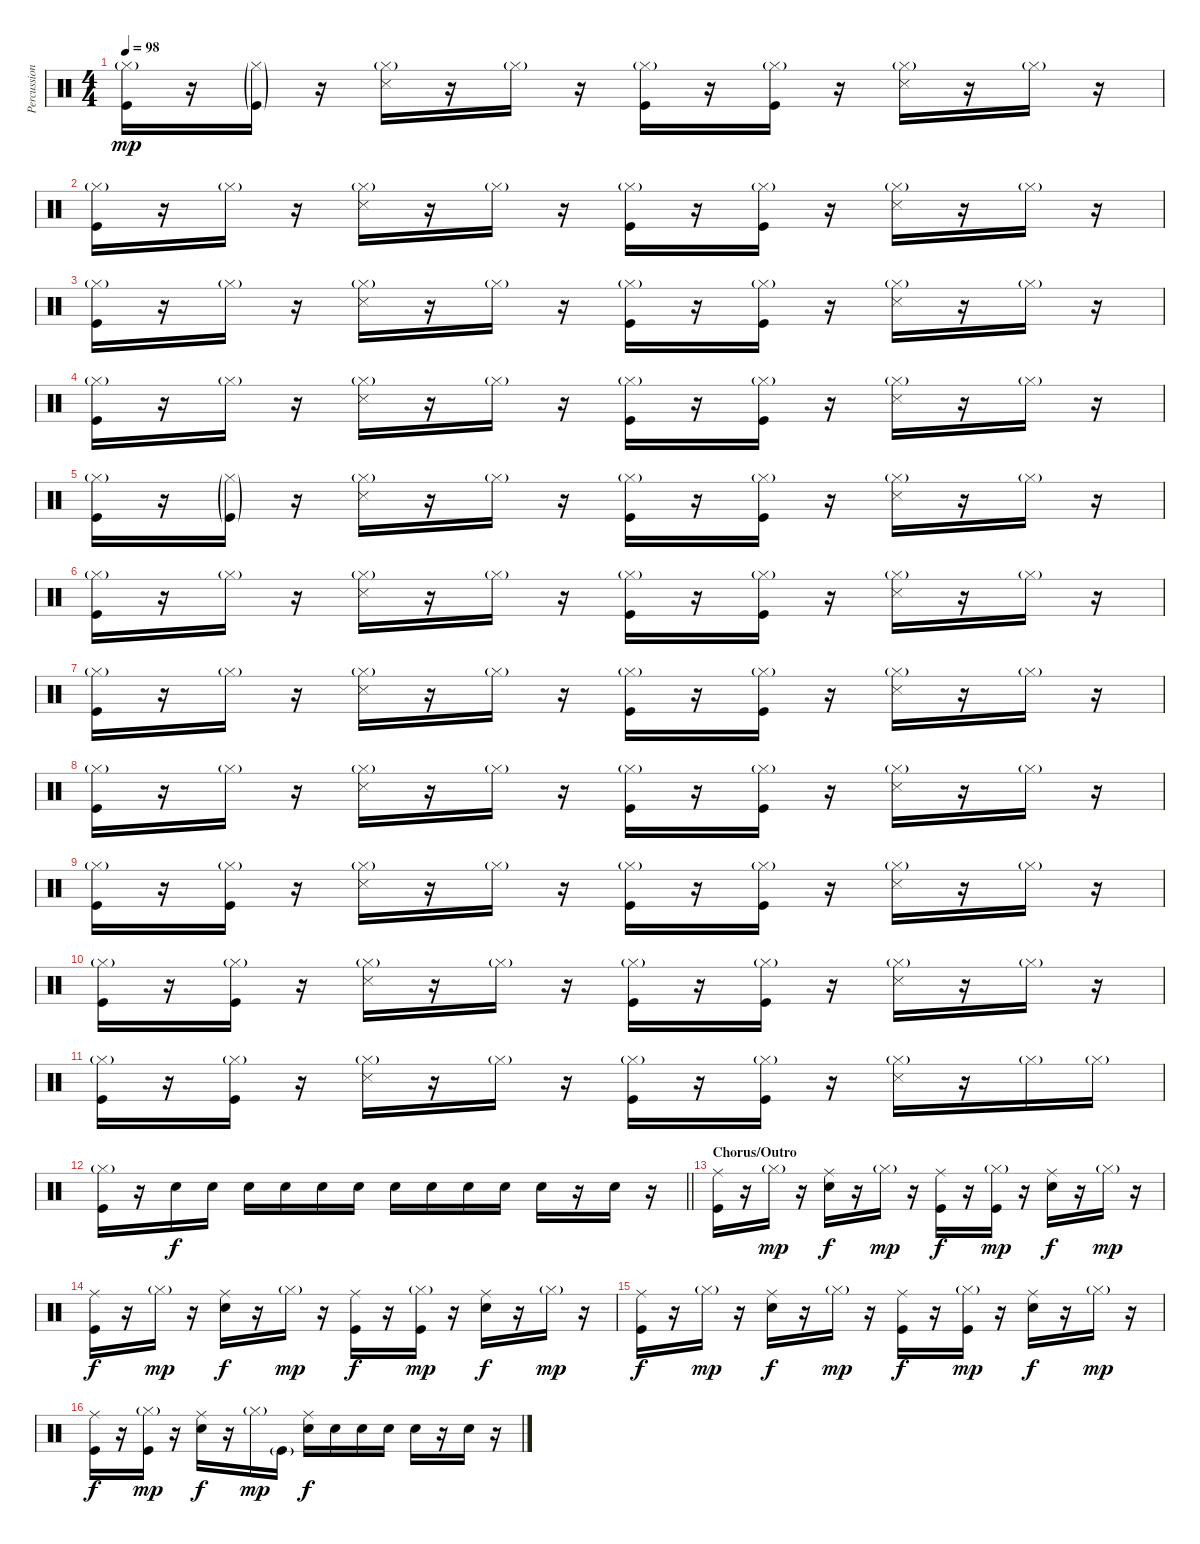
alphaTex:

\track ("Percussion" "Percussion") {instrument percussion}
\staff {score}
\articulation defaults
\ts (4 4)
\tempo 98
\clef neutral
\ks c
("Hi-Hat (closed)"{g} "Kick (hit)").16{dy mp} r.16 ("Hi-Hat (closed)"{g} "Kick (hit)"{g}).16 r.16 ("Hi-Hat (closed)"{g} "Snare (side stick) 3").16 r.16 "Hi-Hat (closed)"{g}.16 r.16 ("Hi-Hat (closed)"{g} "Kick (hit)").16 r.16 ("Hi-Hat (closed)"{g} "Kick (hit)").16 r.16 ("Hi-Hat (closed)"{g} "Snare (side stick) 3").16 r.16 "Hi-Hat (closed)"{g}.16 r.16 |
("Hi-Hat (closed)"{g} "Kick (hit)").16 r.16 "Hi-Hat (closed)"{g}.16 r.16 ("Hi-Hat (closed)"{g} "Snare (side stick) 3").16 r.16 "Hi-Hat (closed)"{g}.16 r.16 ("Hi-Hat (closed)"{g} "Kick (hit)").16 r.16 ("Hi-Hat (closed)"{g} "Kick (hit)").16 r.16 ("Hi-Hat (closed)"{g} "Snare (side stick) 3").16 r.16 "Hi-Hat (closed)"{g}.16 r.16 |
("Hi-Hat (closed)"{g} "Kick (hit)").16 r.16 "Hi-Hat (closed)"{g}.16 r.16 ("Hi-Hat (closed)"{g} "Snare (side stick) 3").16 r.16 "Hi-Hat (closed)"{g}.16 r.16 ("Hi-Hat (closed)"{g} "Kick (hit)").16 r.16 ("Hi-Hat (closed)"{g} "Kick (hit)").16 r.16 ("Hi-Hat (closed)"{g} "Snare (side stick) 3").16 r.16 "Hi-Hat (closed)"{g}.16 r.16 |
("Hi-Hat (closed)"{g} "Kick (hit)").16 r.16 "Hi-Hat (closed)"{g}.16 r.16 ("Hi-Hat (closed)"{g} "Snare (side stick) 3").16 r.16 "Hi-Hat (closed)"{g}.16 r.16 ("Hi-Hat (closed)"{g} "Kick (hit)").16 r.16 ("Hi-Hat (closed)"{g} "Kick (hit)").16 r.16 ("Hi-Hat (closed)"{g} "Snare (side stick) 3").16 r.16 "Hi-Hat (closed)"{g}.16 r.16 |
("Hi-Hat (closed)"{g} "Kick (hit)").16 r.16 ("Hi-Hat (closed)"{g} "Kick (hit)"{g}).16 r.16 ("Hi-Hat (closed)"{g} "Snare (side stick) 3").16 r.16 "Hi-Hat (closed)"{g}.16 r.16 ("Hi-Hat (closed)"{g} "Kick (hit)").16 r.16 ("Hi-Hat (closed)"{g} "Kick (hit)").16 r.16 ("Hi-Hat (closed)"{g} "Snare (side stick) 3").16 r.16 "Hi-Hat (closed)"{g}.16 r.16 |
("Hi-Hat (closed)"{g} "Kick (hit)").16 r.16 "Hi-Hat (closed)"{g}.16 r.16 ("Hi-Hat (closed)"{g} "Snare (side stick) 3").16 r.16 "Hi-Hat (closed)"{g}.16 r.16 ("Hi-Hat (closed)"{g} "Kick (hit)").16 r.16 ("Hi-Hat (closed)"{g} "Kick (hit)").16 r.16 ("Hi-Hat (closed)"{g} "Snare (side stick) 3").16 r.16 "Hi-Hat (closed)"{g}.16 r.16 |
("Hi-Hat (closed)"{g} "Kick (hit)").16 r.16 "Hi-Hat (closed)"{g}.16 r.16 ("Hi-Hat (closed)"{g} "Snare (side stick) 3").16 r.16 "Hi-Hat (closed)"{g}.16 r.16 ("Hi-Hat (closed)"{g} "Kick (hit)").16 r.16 ("Hi-Hat (closed)"{g} "Kick (hit)").16 r.16 ("Hi-Hat (closed)"{g} "Snare (side stick) 3").16 r.16 "Hi-Hat (closed)"{g}.16 r.16 |
("Hi-Hat (closed)"{g} "Kick (hit)").16 r.16 "Hi-Hat (closed)"{g}.16 r.16 ("Hi-Hat (closed)"{g} "Snare (side stick) 3").16 r.16 "Hi-Hat (closed)"{g}.16 r.16 ("Hi-Hat (closed)"{g} "Kick (hit)").16 r.16 ("Hi-Hat (closed)"{g} "Kick (hit)").16 r.16 ("Hi-Hat (closed)"{g} "Snare (side stick) 3").16 r.16 "Hi-Hat (closed)"{g}.16 r.16 |
("Hi-Hat (closed)"{g} "Kick (hit)").16 r.16 ("Hi-Hat (closed)"{g} "Kick (hit)").16 r.16 ("Hi-Hat (closed)"{g} "Snare (side stick) 3").16 r.16 "Hi-Hat (closed)"{g}.16 r.16 ("Hi-Hat (closed)"{g} "Kick (hit)").16 r.16 ("Hi-Hat (closed)"{g} "Kick (hit)").16 r.16 ("Hi-Hat (closed)"{g} "Snare (side stick) 3").16 r.16 "Hi-Hat (closed)"{g}.16 r.16 |
("Hi-Hat (closed)"{g} "Kick (hit)").16 r.16 ("Hi-Hat (closed)"{g} "Kick (hit)").16 r.16 ("Hi-Hat (closed)"{g} "Snare (side stick) 3").16 r.16 "Hi-Hat (closed)"{g}.16 r.16 ("Hi-Hat (closed)"{g} "Kick (hit)").16 r.16 ("Hi-Hat (closed)"{g} "Kick (hit)").16 r.16 ("Hi-Hat (closed)"{g} "Snare (side stick) 3").16 r.16 "Hi-Hat (closed)"{g}.16 r.16 |
("Hi-Hat (closed)"{g} "Kick (hit)").16 r.16 ("Hi-Hat (closed)"{g} "Kick (hit)").16 r.16 ("Hi-Hat (closed)"{g} "Snare (side stick) 3").16 r.16 "Hi-Hat (closed)"{g}.16 r.16 ("Hi-Hat (closed)"{g} "Kick (hit)").16 r.16 ("Hi-Hat (closed)"{g} "Kick (hit)").16 r.16 ("Hi-Hat (closed)"{g} "Snare (side stick) 3").16 r.16 "Hi-Hat (closed)"{g}.16 "Hi-Hat (closed)"{g}.16 |
\barLineRight lightlight
("Hi-Hat (closed)"{g} "Kick (hit)").16 r.16 "Snare (hit) 2".16{dy f} "Snare (hit) 2".16 "Snare (hit) 2".16 "Snare (hit) 2".16 "Snare (hit) 2".16 "Snare (hit) 2".16 "Snare (hit) 2".16 "Snare (hit) 2".16 "Snare (hit) 2".16 "Snare (hit) 2".16 "Snare (hit) 2".16 r.16 "Snare (hit) 2".16 r.16 |
\section ("" "Chorus/Outro")
("Ride (middle)" "Kick (hit)").16 r.16 "Hi-Hat (closed)"{g}.16{dy mp} r.16 ("Ride (middle)" "Snare (hit) 2").16{dy f} r.16 "Hi-Hat (closed)"{g}.16{dy mp} r.16 ("Ride (middle)" "Kick (hit)").16{dy f} r.16 ("Hi-Hat (closed)"{g} "Kick (hit)").16{dy mp} r.16 ("Ride (middle)" "Snare (hit) 2").16{dy f} r.16 "Hi-Hat (closed)"{g}.16{dy mp} r.16 |
("Ride (middle)" "Kick (hit)").16{dy f} r.16 "Hi-Hat (closed)"{g}.16{dy mp} r.16 ("Ride (middle)" "Snare (hit) 2").16{dy f} r.16 "Hi-Hat (closed)"{g}.16{dy mp} r.16 ("Ride (middle)" "Kick (hit)").16{dy f} r.16 ("Hi-Hat (closed)"{g} "Kick (hit)").16{dy mp} r.16 ("Ride (middle)" "Snare (hit) 2").16{dy f} r.16 "Hi-Hat (closed)"{g}.16{dy mp} r.16 |
("Ride (middle)" "Kick (hit)").16{dy f} r.16 "Hi-Hat (closed)"{g}.16{dy mp} r.16 ("Ride (middle)" "Snare (hit) 2").16{dy f} r.16 "Hi-Hat (closed)"{g}.16{dy mp} r.16 ("Ride (middle)" "Kick (hit)").16{dy f} r.16 ("Hi-Hat (closed)"{g} "Kick (hit)").16{dy mp} r.16 ("Ride (middle)" "Snare (hit) 2").16{dy f} r.16 "Hi-Hat (closed)"{g}.16{dy mp} r.16 |
("Ride (middle)" "Kick (hit)").16{dy f} r.16 ("Hi-Hat (closed)"{g} "Kick (hit)").16{dy mp} r.16 ("Ride (middle)" "Snare (hit) 2").16{dy f} r.16 "Hi-Hat (closed)"{g}.16{dy mp} "Kick (hit)"{g}.16 ("Ride (middle)" "Snare (hit) 2").16{dy f} "Snare (hit) 2".16 "Snare (hit) 2".16 "Snare (hit) 2".16 "Snare (hit) 2".16 r.16 "Snare (hit) 2".16 r.16
